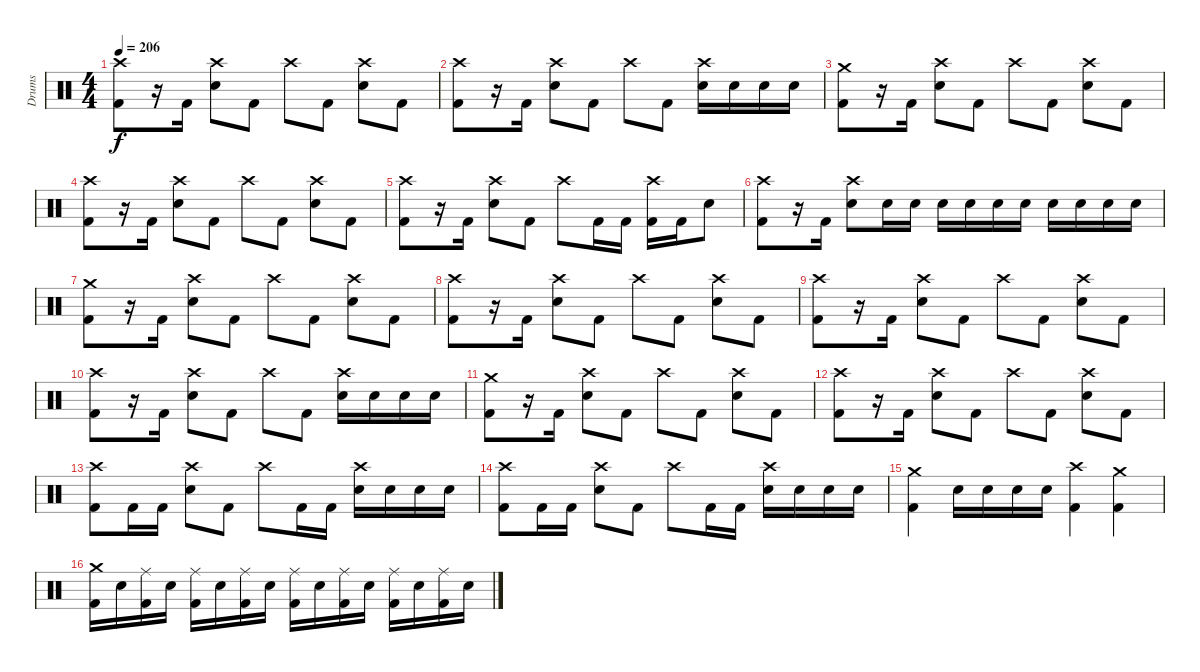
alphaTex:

\track ("Drums" "Drums") {instrument percussion}
\staff {score}
\articulation defaults
\ts (4 4)
\tempo 206
\clef neutral
\ks c
("Crash high (hit)" "Kick (hit) 2").8{dy f} r.16 "Kick (hit) 2".16 ("Crash high (hit)" "Snare (hit) 2").8 "Kick (hit) 2".8 "Crash high (hit)".8 "Kick (hit) 2".8 ("Crash high (hit)" "Snare (hit) 2").8 "Kick (hit) 2".8 |
("Crash high (hit)" "Kick (hit) 2").8 r.16 "Kick (hit) 2".16 ("Crash high (hit)" "Snare (hit) 2").8 "Kick (hit) 2".8 "Crash high (hit)".8 "Kick (hit) 2".8 ("Crash high (hit)" "Snare (hit) 2").16 "Snare (hit) 2".16 "Snare (hit) 2".16 "Snare (hit) 2".16 |
("Crash medium (hit)" "Kick (hit) 2").8 r.16 "Kick (hit) 2".16 ("Crash high (hit)" "Snare (hit) 2").8 "Kick (hit) 2".8 "Crash high (hit)".8 "Kick (hit) 2".8 ("Crash high (hit)" "Snare (hit) 2").8 "Kick (hit) 2".8 |
("Crash high (hit)" "Kick (hit) 2").8 r.16 "Kick (hit) 2".16 ("Crash high (hit)" "Snare (hit) 2").8 "Kick (hit) 2".8 "Crash high (hit)".8 "Kick (hit) 2".8 ("Crash high (hit)" "Snare (hit) 2").8 "Kick (hit) 2".8 |
("Crash high (hit)" "Kick (hit) 2").8 r.16 "Kick (hit) 2".16 ("Crash high (hit)" "Snare (hit) 2").8 "Kick (hit) 2".8 "Crash high (hit)".8 "Kick (hit) 2".16 "Kick (hit) 2".16 ("Crash high (hit)" "Kick (hit) 2").16 "Kick (hit) 2".16 "Snare (hit) 2".8 |
("Crash high (hit)" "Kick (hit) 2").8 r.16 "Kick (hit) 2".16 ("Crash high (hit)" "Snare (hit) 2").8 "Snare (hit) 2".16 "Snare (hit) 2".16 "Snare (hit) 2".16 "Snare (hit) 2".16 "Snare (hit) 2".16 "Snare (hit) 2".16 "Snare (hit) 2".16 "Snare (hit) 2".16 "Snare (hit) 2".16 "Snare (hit) 2".16 |
("Crash medium (hit)" "Kick (hit) 2").8 r.16 "Kick (hit) 2".16 ("Crash high (hit)" "Snare (hit) 2").8 "Kick (hit) 2".8 "Crash high (hit)".8 "Kick (hit) 2".8 ("Crash high (hit)" "Snare (hit) 2").8 "Kick (hit) 2".8 |
("Crash high (hit)" "Kick (hit) 2").8 r.16 "Kick (hit) 2".16 ("Crash high (hit)" "Snare (hit) 2").8 "Kick (hit) 2".8 "Crash high (hit)".8 "Kick (hit) 2".8 ("Crash high (hit)" "Snare (hit) 2").8 "Kick (hit) 2".8 |
("Crash high (hit)" "Kick (hit) 2").8 r.16 "Kick (hit) 2".16 ("Crash high (hit)" "Snare (hit) 2").8 "Kick (hit) 2".8 "Crash high (hit)".8 "Kick (hit) 2".8 ("Crash high (hit)" "Snare (hit) 2").8 "Kick (hit) 2".8 |
("Crash high (hit)" "Kick (hit) 2").8 r.16 "Kick (hit) 2".16 ("Crash high (hit)" "Snare (hit) 2").8 "Kick (hit) 2".8 "Crash high (hit)".8 "Kick (hit) 2".8 ("Crash high (hit)" "Snare (hit) 2").16 "Snare (hit) 2".16 "Snare (hit) 2".16 "Snare (hit) 2".16 |
("Crash medium (hit)" "Kick (hit) 2").8 r.16 "Kick (hit) 2".16 ("Crash high (hit)" "Snare (hit) 2").8 "Kick (hit) 2".8 "Crash high (hit)".8 "Kick (hit) 2".8 ("Crash high (hit)" "Snare (hit) 2").8 "Kick (hit) 2".8 |
("Crash high (hit)" "Kick (hit) 2").8 r.16 "Kick (hit) 2".16 ("Crash high (hit)" "Snare (hit) 2").8 "Kick (hit) 2".8 "Crash high (hit)".8 "Kick (hit) 2".8 ("Crash high (hit)" "Snare (hit) 2").8 "Kick (hit) 2".8 |
("Crash high (hit)" "Kick (hit) 2").8 "Kick (hit) 2".16 "Kick (hit) 2".16 ("Crash high (hit)" "Snare (hit) 2").8 "Kick (hit) 2".8 "Crash high (hit)".8 "Kick (hit) 2".16 "Kick (hit) 2".16 ("Crash high (hit)" "Snare (hit) 2").16 "Snare (hit) 2".16 "Snare (hit) 2".16 "Snare (hit) 2".16 |
("Crash high (hit)" "Kick (hit) 2").8 "Kick (hit) 2".16 "Kick (hit) 2".16 ("Crash high (hit)" "Snare (hit) 2").8 "Kick (hit) 2".8 "Crash high (hit)".8 "Kick (hit) 2".16 "Kick (hit) 2".16 ("Crash high (hit)" "Snare (hit) 2").16 "Snare (hit) 2".16 "Snare (hit) 2".16 "Snare (hit) 2".16 |
("Crash medium (hit)" "Kick (hit) 2").4 "Snare (hit) 2".16 "Snare (hit) 2".16 "Snare (hit) 2".16 "Snare (hit) 2".16 ("Crash high (hit)" "Kick (hit) 2").4 ("Crash medium (hit)" "Kick (hit) 2").4 |
("Crash medium (hit)" "Kick (hit) 2").16 "Snare (hit) 2".16 ("Ride (middle)" "Kick (hit) 2").16 "Snare (hit) 2".16 ("Ride (middle)" "Kick (hit) 2").16 "Snare (hit) 2".16 ("Ride (middle)" "Kick (hit) 2").16 "Snare (hit) 2".16 ("Ride (middle)" "Kick (hit) 2").16 "Snare (hit) 2".16 ("Ride (middle)" "Kick (hit) 2").16 "Snare (hit) 2".16 ("Ride (middle)" "Kick (hit) 2").16 "Snare (hit) 2".16 ("Ride (middle)" "Kick (hit) 2").16 "Snare (hit) 2".16
